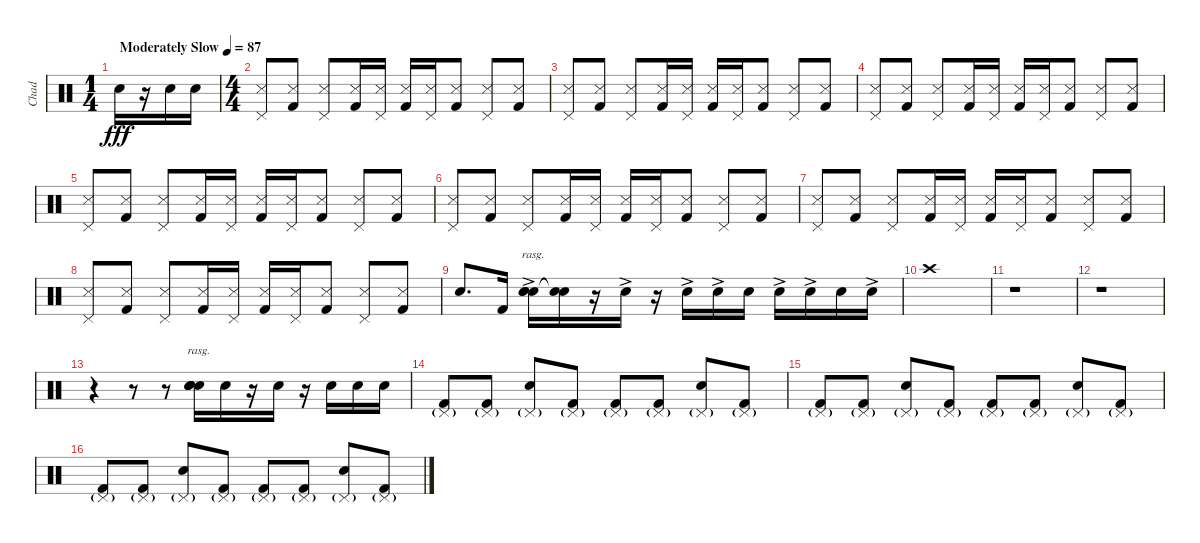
\track ("Chad" "Chad") {instrument percussion}
\staff {score}
\articulation defaults
\ts (1 4)
\tempo (87 "Moderately Slow")
\clef neutral
\ks c "Snare (hit) 2".16{dy fff}
r.16 "Snare (hit) 2".16 "Snare (hit) 2".16 |
\ts (4 4)
("Snare (side stick) 3" "Pedal Hi-Hat (hit)").8{volume 7} ("Snare (side stick) 3" "Kick (hit) 2").8 ("Snare (side stick) 3" "Pedal Hi-Hat (hit)").8 ("Snare (side stick) 3" "Kick (hit) 2").16 ("Snare (side stick) 3" "Pedal Hi-Hat (hit)").16 ("Snare (side stick) 3" "Kick (hit) 2").16 ("Snare (side stick) 3" "Pedal Hi-Hat (hit)").16 ("Snare (side stick) 3" "Kick (hit) 2").8 ("Snare (side stick) 3" "Pedal Hi-Hat (hit)").8 ("Snare (side stick) 3" "Kick (hit) 2").8 |
("Snare (side stick) 3" "Pedal Hi-Hat (hit)").8 ("Snare (side stick) 3" "Kick (hit) 2").8 ("Snare (side stick) 3" "Pedal Hi-Hat (hit)").8 ("Snare (side stick) 3" "Kick (hit) 2").16 ("Snare (side stick) 3" "Pedal Hi-Hat (hit)").16 ("Snare (side stick) 3" "Kick (hit) 2").16 ("Snare (side stick) 3" "Pedal Hi-Hat (hit)").16 ("Snare (side stick) 3" "Kick (hit) 2").8 ("Snare (side stick) 3" "Pedal Hi-Hat (hit)").8 ("Snare (side stick) 3" "Kick (hit) 2").8 |
("Snare (side stick) 3" "Pedal Hi-Hat (hit)").8 ("Snare (side stick) 3" "Kick (hit) 2").8 ("Snare (side stick) 3" "Pedal Hi-Hat (hit)").8 ("Snare (side stick) 3" "Kick (hit) 2").16 ("Snare (side stick) 3" "Pedal Hi-Hat (hit)").16 ("Snare (side stick) 3" "Kick (hit) 2").16 ("Snare (side stick) 3" "Pedal Hi-Hat (hit)").16 ("Snare (side stick) 3" "Kick (hit) 2").8 ("Snare (side stick) 3" "Pedal Hi-Hat (hit)").8 ("Snare (side stick) 3" "Kick (hit) 2").8 |
("Snare (side stick) 3" "Pedal Hi-Hat (hit)").8 ("Snare (side stick) 3" "Kick (hit) 2").8 ("Snare (side stick) 3" "Pedal Hi-Hat (hit)").8 ("Snare (side stick) 3" "Kick (hit) 2").16 ("Snare (side stick) 3" "Pedal Hi-Hat (hit)").16 ("Snare (side stick) 3" "Kick (hit) 2").16 ("Snare (side stick) 3" "Pedal Hi-Hat (hit)").16 ("Snare (side stick) 3" "Kick (hit) 2").8 ("Snare (side stick) 3" "Pedal Hi-Hat (hit)").8 ("Snare (side stick) 3" "Kick (hit) 2").8 |
("Snare (side stick) 3" "Pedal Hi-Hat (hit)").8 ("Snare (side stick) 3" "Kick (hit) 2").8 ("Snare (side stick) 3" "Pedal Hi-Hat (hit)").8 ("Snare (side stick) 3" "Kick (hit) 2").16 ("Snare (side stick) 3" "Pedal Hi-Hat (hit)").16 ("Snare (side stick) 3" "Kick (hit) 2").16 ("Snare (side stick) 3" "Pedal Hi-Hat (hit)").16 ("Snare (side stick) 3" "Kick (hit) 2").8 ("Snare (side stick) 3" "Pedal Hi-Hat (hit)").8 ("Snare (side stick) 3" "Kick (hit) 2").8 |
("Snare (side stick) 3" "Pedal Hi-Hat (hit)").8 ("Snare (side stick) 3" "Kick (hit) 2").8 ("Snare (side stick) 3" "Pedal Hi-Hat (hit)").8 ("Snare (side stick) 3" "Kick (hit) 2").16 ("Snare (side stick) 3" "Pedal Hi-Hat (hit)").16 ("Snare (side stick) 3" "Kick (hit) 2").16 ("Snare (side stick) 3" "Pedal Hi-Hat (hit)").16 ("Snare (side stick) 3" "Kick (hit) 2").8 ("Snare (side stick) 3" "Pedal Hi-Hat (hit)").8 ("Snare (side stick) 3" "Kick (hit) 2").8 |
("Snare (side stick) 3" "Pedal Hi-Hat (hit)").8 ("Snare (side stick) 3" "Kick (hit) 2").8 ("Snare (side stick) 3" "Pedal Hi-Hat (hit)").8 ("Snare (side stick) 3" "Kick (hit) 2").16 ("Snare (side stick) 3" "Pedal Hi-Hat (hit)").16 ("Snare (side stick) 3" "Kick (hit) 2").16 ("Snare (side stick) 3" "Pedal Hi-Hat (hit)").16 ("Snare (side stick) 3" "Kick (hit) 2").8 ("Snare (side stick) 3" "Pedal Hi-Hat (hit)").8 ("Snare (side stick) 3" "Kick (hit) 2").8 |
"Snare (hit) 2".8{d volume 12} "Kick (hit) 2".16 ("Snare (hit) 2" "Electric Snare (hit)"{ac} "Electric Snare (hit)").16{bu 480 rasg ii} ("Snare (hit)"{t} "Electric Snare (hit)"{t}).16 r.16 "Electric Snare (hit)"{ac}.16 r.16 "Snare (hit) 2"{ac}.16 "Snare (hit) 2"{ac}.16 "Snare (hit) 2".16 "Snare (hit) 2"{ac}.16 "Snare (hit) 2"{ac}.16 "Snare (hit) 2".16 "Snare (hit) 2"{ac}.16 |
"Crash high (hit)".1 |
r.1 |
r.1 |
r.4 r.8 r.8 ("Snare (hit) 2" "Snare (hit) 2" "Snare (hit) 2" "Snare (hit) 2").16{bd 120 rasg ii} "Snare (hit) 2".16 r.16 "Snare (hit) 2".16 r.16 "Snare (hit) 2".16 "Snare (hit) 2".16 "Snare (hit) 2".16 |
("Pedal Hi-Hat (hit)"{g} "Kick (hit) 2").8 ("Pedal Hi-Hat (hit)"{g} "Kick (hit) 2").8 ("Pedal Hi-Hat (hit)"{g} "Snare (hit) 2").8 ("Pedal Hi-Hat (hit)"{g} "Kick (hit) 2").8 ("Pedal Hi-Hat (hit)"{g} "Kick (hit) 2").8 ("Pedal Hi-Hat (hit)"{g} "Kick (hit) 2").8 ("Pedal Hi-Hat (hit)"{g} "Snare (hit) 2").8 ("Pedal Hi-Hat (hit)"{g} "Kick (hit) 2").8 |
("Pedal Hi-Hat (hit)"{g} "Kick (hit) 2").8 ("Pedal Hi-Hat (hit)"{g} "Kick (hit) 2").8 ("Pedal Hi-Hat (hit)"{g} "Snare (hit) 2").8 ("Pedal Hi-Hat (hit)"{g} "Kick (hit) 2").8 ("Pedal Hi-Hat (hit)"{g} "Kick (hit) 2").8 ("Pedal Hi-Hat (hit)"{g} "Kick (hit) 2").8 ("Pedal Hi-Hat (hit)"{g} "Snare (hit) 2").8 ("Pedal Hi-Hat (hit)"{g} "Kick (hit) 2").8 |
("Pedal Hi-Hat (hit)"{g} "Kick (hit) 2").8 ("Pedal Hi-Hat (hit)"{g} "Kick (hit) 2").8 ("Pedal Hi-Hat (hit)"{g} "Snare (hit) 2").8 ("Pedal Hi-Hat (hit)"{g} "Kick (hit) 2").8 ("Pedal Hi-Hat (hit)"{g} "Kick (hit) 2").8 ("Pedal Hi-Hat (hit)"{g} "Kick (hit) 2").8 ("Pedal Hi-Hat (hit)"{g} "Snare (hit) 2").8 ("Pedal Hi-Hat (hit)"{g} "Kick (hit) 2").8
